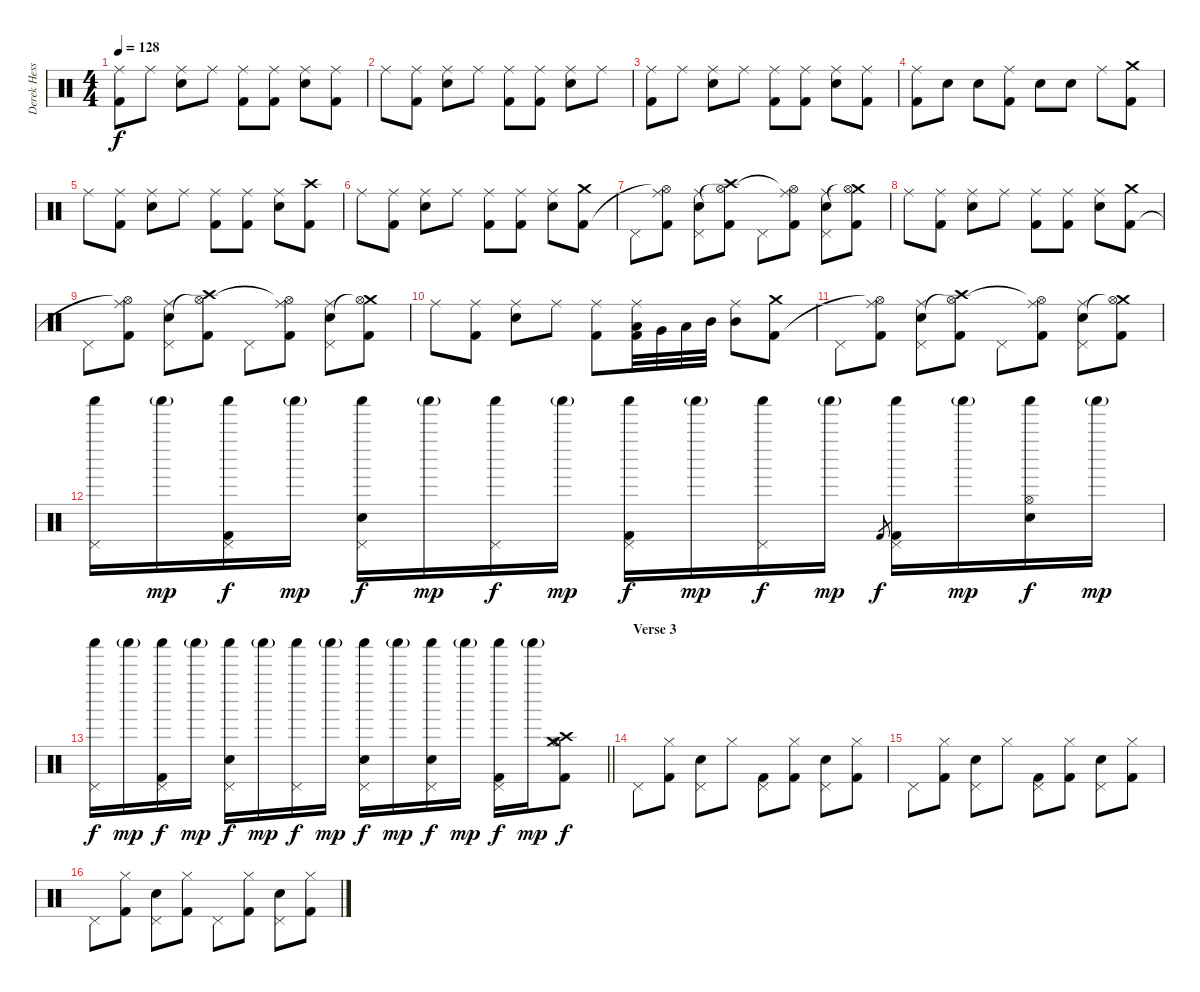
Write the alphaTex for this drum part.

\track ("Derek Hess (Drums and Percussion)" "Derek Hess") {instrument percussion}
\staff {score}
\articulation defaults
\ts (4 4)
\tempo 128
\clef neutral
\ks c
("Ride (middle)" "Kick (hit) 2").8{dy f} "Ride (middle)".8 ("Ride (middle)" "Snare (hit) 2").8 "Ride (middle)".8 ("Ride (middle)" "Kick (hit) 2").8 ("Ride (middle)" "Kick (hit) 2").8 ("Ride (middle)" "Snare (hit) 2").8 ("Ride (middle)" "Kick (hit) 2").8 |
"Ride (middle)".8 ("Ride (middle)" "Kick (hit) 2").8 ("Ride (middle)" "Snare (hit) 2").8 "Ride (middle)".8 ("Ride (middle)" "Kick (hit) 2").8 ("Ride (middle)" "Kick (hit) 2").8 ("Ride (middle)" "Snare (hit) 2").8 "Ride (middle)".8 |
("Ride (middle)" "Kick (hit) 2").8 "Ride (middle)".8 ("Ride (middle)" "Snare (hit) 2").8 "Ride (middle)".8 ("Ride (middle)" "Kick (hit) 2").8 ("Ride (middle)" "Kick (hit) 2").8 ("Ride (middle)" "Snare (hit) 2").8 ("Ride (middle)" "Kick (hit) 2").8 |
("Ride (middle)" "Kick (hit) 2").8 "Snare (hit) 2".8 "Snare (hit) 2".8 ("Ride (middle)" "Kick (hit) 2").8 "Snare (hit) 2".8 "Snare (hit) 2".8 "Ride (middle)".8 ("Crash medium (hit)" "Kick (hit) 2").8 |
"Ride (middle)".8 ("Ride (middle)" "Kick (hit) 2").8 ("Ride (middle)" "Snare (hit) 2").8 "Ride (middle)".8 ("Ride (middle)" "Kick (hit) 2").8 ("Ride (middle)" "Kick (hit) 2").8 ("Ride (middle)" "Snare (hit) 2").8 ("Crash high (hit)" "Kick (hit) 2").8 |
"Ride (middle)".8 ("Ride (middle)" "Kick (hit) 2").8 ("Ride (middle)" "Snare (hit) 2").8 "Ride (middle)".8 ("Ride (middle)" "Kick (hit) 2").8 ("Ride (middle)" "Kick (hit) 2").8 ("Ride (middle)" "Snare (hit) 2").8 ("Crash medium (hit)" "Kick (hit) 2").8 |
"Pedal Hi-Hat (hit)".8 ("Ride (middle)" "Hi-Hat (open)"{t} "Kick (hit) 2").8 ("Ride (middle)" "Snare (hit) 2" "Pedal Hi-Hat (hit)").8 ("Crash high (hit)" "Hi-Hat (open)"{t} "Kick (hit) 2").8 "Pedal Hi-Hat (hit)".8 ("Ride (middle)" "Hi-Hat (open)"{t} "Kick (hit) 2").8 ("Ride (middle)" "Snare (hit) 2" "Pedal Hi-Hat (hit)").8 ("Crash medium (hit)" "Hi-Hat (open)"{t} "Kick (hit) 2").8 |
"Ride (middle)".8 ("Ride (middle)" "Kick (hit) 2").8 ("Ride (middle)" "Snare (hit) 2").8 "Ride (middle)".8 ("Ride (middle)" "Kick (hit) 2").8 ("Ride (middle)" "Kick (hit) 2").8 ("Ride (middle)" "Snare (hit) 2").8 ("Crash medium (hit)" "Kick (hit) 2").8 |
"Pedal Hi-Hat (hit)".8 ("Ride (middle)" "Hi-Hat (open)"{t} "Kick (hit) 2").8 ("Ride (middle)" "Snare (hit) 2" "Pedal Hi-Hat (hit)").8 ("Crash high (hit)" "Hi-Hat (open)"{t} "Kick (hit) 2").8 "Pedal Hi-Hat (hit)".8 ("Ride (middle)" "Hi-Hat (open)"{t} "Kick (hit) 2").8 ("Ride (middle)" "Snare (hit) 2" "Pedal Hi-Hat (hit)").8 ("Crash medium (hit)" "Hi-Hat (open)"{t} "Kick (hit) 2").8 |
"Ride (middle)".8 ("Ride (middle)" "Kick (hit) 2").8 ("Ride (middle)" "Snare (hit) 2").8 "Ride (middle)".8 ("Ride (middle)" "Kick (hit) 2").8 ("Ride (middle)" "Low Floor Tom (hit)" "Kick (hit) 2").32 "Very Low Tom (hit)".32 "Low Tom (hit)".32 "Mid Tom (hit)".32 ("Ride (middle)" "Mid Tom (hit)").8 ("Crash medium (hit)" "Kick (hit) 2").8 |
"Pedal Hi-Hat (hit)".8 ("Ride (middle)" "Hi-Hat (open)"{t} "Kick (hit) 2").8 ("Ride (middle)" "Snare (hit) 2" "Pedal Hi-Hat (hit)").8 ("Crash high (hit)" "Hi-Hat (open)"{t} "Kick (hit) 2").8 "Pedal Hi-Hat (hit)".8 ("Ride (middle)" "Hi-Hat (open)"{t} "Kick (hit) 2").8 ("Ride (middle)" "Snare (hit) 2" "Pedal Hi-Hat (hit)").8 ("Crash medium (hit)" "Hi-Hat (open)"{t} "Kick (hit) 2").8 |
("Shaker (hit)" "Pedal Hi-Hat (hit)").16 "Shaker (hit)"{g}.16{dy mp} ("Shaker (hit)" "Pedal Hi-Hat (hit)" "Kick (hit) 2").16{dy f} "Shaker (hit)"{g}.16{dy mp} ("Shaker (hit)" "Snare (hit) 2" "Pedal Hi-Hat (hit)").16{dy f} "Shaker (hit)"{g}.16{dy mp} ("Shaker (hit)" "Pedal Hi-Hat (hit)").16{dy f} "Shaker (hit)"{g}.16{dy mp} ("Shaker (hit)" "Pedal Hi-Hat (hit)" "Kick (hit) 2").16{dy f} "Shaker (hit)"{g}.16{dy mp} ("Shaker (hit)" "Pedal Hi-Hat (hit)").16{dy f} "Shaker (hit)"{g}.16{dy mp} "Kick (hit) 2".8{gr dy f} ("Shaker (hit)" "Pedal Hi-Hat (hit)" "Kick (hit) 2").16 "Shaker (hit)"{g}.16{dy mp} ("Shaker (hit)" "Snare (hit) 2" "Hi-Hat (open)").16{dy f} "Shaker (hit)"{g}.16{dy mp} |
\barLineRight lightlight
("Shaker (hit)" "Pedal Hi-Hat (hit)").16{dy f} "Shaker (hit)"{g}.16{dy mp} ("Shaker (hit)" "Pedal Hi-Hat (hit)" "Kick (hit) 2").16{dy f} "Shaker (hit)"{g}.16{dy mp} ("Shaker (hit)" "Snare (hit) 2" "Pedal Hi-Hat (hit)").16{dy f} "Shaker (hit)"{g}.16{dy mp} ("Shaker (hit)" "Pedal Hi-Hat (hit)").16{dy f} "Shaker (hit)"{g}.16{dy mp} ("Shaker (hit)" "Snare (hit) 2" "Pedal Hi-Hat (hit)").16{dy f} "Shaker (hit)"{g}.16{dy mp} ("Shaker (hit)" "Snare (hit) 2" "Pedal Hi-Hat (hit)").16{dy f} "Shaker (hit)"{g}.16{dy mp} ("Shaker (hit)" "Pedal Hi-Hat (hit)" "Kick (hit) 2").16{dy f} "Shaker (hit)"{g}.16{dy mp} ("Crash medium (hit)" "Crash high (hit)" "Hi-Hat (open)" "Kick (hit) 2").8{dy f} |
\section ("" "Verse 3")
"Pedal Hi-Hat (hit)".8 ("Hi-Hat (closed)" "Kick (hit) 2").8 ("Snare (hit) 2" "Pedal Hi-Hat (hit)").8 "Hi-Hat (closed)".8 ("Pedal Hi-Hat (hit)" "Kick (hit) 2").8 ("Hi-Hat (closed)" "Kick (hit) 2").8 ("Snare (hit) 2" "Pedal Hi-Hat (hit)").8 ("Hi-Hat (closed)" "Kick (hit) 2").8 |
"Pedal Hi-Hat (hit)".8 ("Hi-Hat (closed)" "Kick (hit) 2").8 ("Snare (hit) 2" "Pedal Hi-Hat (hit)").8 "Hi-Hat (closed)".8 ("Pedal Hi-Hat (hit)" "Kick (hit) 2").8 ("Hi-Hat (closed)" "Kick (hit) 2").8 ("Snare (hit) 2" "Pedal Hi-Hat (hit)").8 ("Hi-Hat (closed)" "Kick (hit) 2").8 |
"Pedal Hi-Hat (hit)".8 ("Hi-Hat (closed)" "Kick (hit) 2").8 ("Snare (hit) 2" "Pedal Hi-Hat (hit)").8 ("Hi-Hat (closed)" "Kick (hit) 2").8 "Pedal Hi-Hat (hit)".8 ("Hi-Hat (closed)" "Kick (hit) 2").8 ("Snare (hit) 2" "Pedal Hi-Hat (hit)").8 ("Hi-Hat (closed)" "Kick (hit) 2").8
